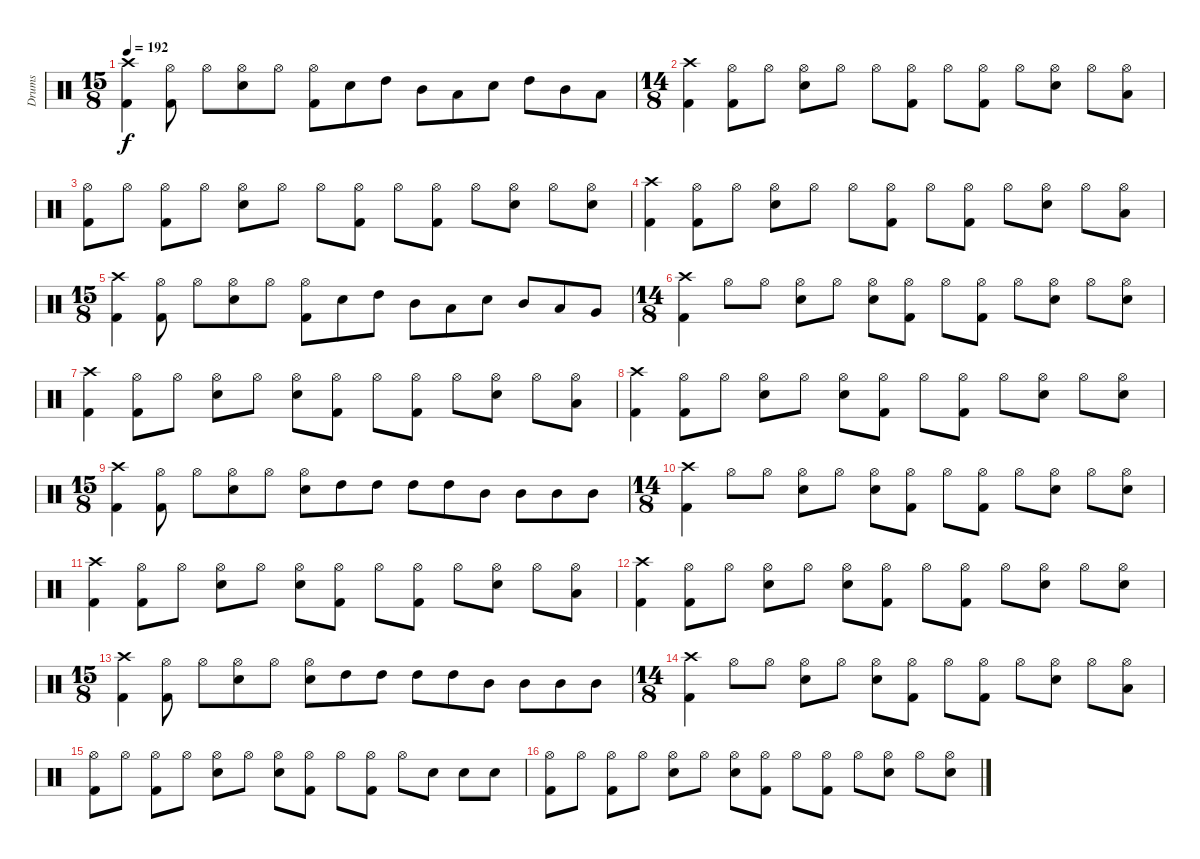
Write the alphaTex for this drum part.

\track ("Drums" "Drums") {instrument percussion}
\staff {score}
\articulation defaults
\ts (15 8)
\tempo 192
\clef neutral
\ks c
("Crash high (hit)" "Kick (hit) 2").4{dy f} ("Hi-Hat (open)" "Kick (hit) 2").8 "Hi-Hat (open)".8 ("Hi-Hat (open)" "Snare (hit) 2").8 "Hi-Hat (open)".8 ("Hi-Hat (open)" "Kick (hit) 2").8 "Snare (hit) 2".8 "High Tom (hit)".8 "Mid Tom (hit)".8 "Low Tom (hit)".8 "Snare (hit) 2".8 "High Tom (hit)".8 "Mid Tom (hit)".8 "Low Tom (hit)".8 |
\ts (14 8)
("Crash high (hit)" "Kick (hit) 2").4 ("Hi-Hat (open)" "Kick (hit) 2").8 "Hi-Hat (open)".8 ("Hi-Hat (open)" "Snare (hit) 2").8 "Hi-Hat (open)".8 "Hi-Hat (open)".8 ("Hi-Hat (open)" "Kick (hit) 2").8 "Hi-Hat (open)".8 ("Hi-Hat (open)" "Kick (hit) 2").8 "Hi-Hat (open)".8 ("Hi-Hat (open)" "Snare (hit) 2").8 "Hi-Hat (open)".8 ("Hi-Hat (open)" "Low Tom (hit)").8 |
("Hi-Hat (open)" "Kick (hit) 2").8 "Hi-Hat (open)".8 ("Hi-Hat (open)" "Kick (hit) 2").8 "Hi-Hat (open)".8 ("Hi-Hat (open)" "Snare (hit) 2").8 "Hi-Hat (open)".8 "Hi-Hat (open)".8 ("Hi-Hat (open)" "Kick (hit) 2").8 "Hi-Hat (open)".8 ("Hi-Hat (open)" "Kick (hit) 2").8 "Hi-Hat (open)".8 ("Hi-Hat (open)" "Snare (hit) 2").8 "Hi-Hat (open)".8 ("Hi-Hat (open)" "Snare (hit) 2").8 |
("Crash high (hit)" "Kick (hit) 2").4 ("Hi-Hat (open)" "Kick (hit) 2").8 "Hi-Hat (open)".8 ("Hi-Hat (open)" "Snare (hit) 2").8 "Hi-Hat (open)".8 "Hi-Hat (open)".8 ("Hi-Hat (open)" "Kick (hit) 2").8 "Hi-Hat (open)".8 ("Hi-Hat (open)" "Kick (hit) 2").8 "Hi-Hat (open)".8 ("Hi-Hat (open)" "Snare (hit) 2").8 "Hi-Hat (open)".8 ("Hi-Hat (open)" "Low Tom (hit)").8 |
\ts (15 8)
("Crash high (hit)" "Kick (hit) 2").4 ("Hi-Hat (open)" "Kick (hit) 2").8 "Hi-Hat (open)".8 ("Hi-Hat (open)" "Snare (hit) 2").8 "Hi-Hat (open)".8 ("Hi-Hat (open)" "Kick (hit) 2").8 "Snare (hit) 2".8 "High Tom (hit)".8 "Mid Tom (hit)".8 "Low Tom (hit)".8 "Snare (hit) 2".8 "Mid Tom (hit)".8 "Low Tom (hit)".8 "Very Low Tom (hit)".8 |
\ts (14 8)
("Crash high (hit)" "Kick (hit) 2").4 "Hi-Hat (open)".8 "Hi-Hat (open)".8 ("Hi-Hat (open)" "Snare (hit) 2").8 "Hi-Hat (open)".8 ("Hi-Hat (open)" "Snare (hit) 2").8 ("Hi-Hat (open)" "Kick (hit) 2").8 "Hi-Hat (open)".8 ("Hi-Hat (open)" "Kick (hit) 2").8 "Hi-Hat (open)".8 ("Hi-Hat (open)" "Snare (hit) 2").8 "Hi-Hat (open)".8 ("Hi-Hat (open)" "Snare (hit) 2").8 |
("Crash high (hit)" "Kick (hit) 2").4 ("Hi-Hat (open)" "Kick (hit) 2").8 "Hi-Hat (open)".8 ("Hi-Hat (open)" "Snare (hit) 2").8 "Hi-Hat (open)".8 ("Hi-Hat (open)" "Snare (hit) 2").8 ("Hi-Hat (open)" "Kick (hit) 2").8 "Hi-Hat (open)".8 ("Hi-Hat (open)" "Kick (hit) 2").8 "Hi-Hat (open)".8 ("Hi-Hat (open)" "Snare (hit) 2").8 "Hi-Hat (open)".8 ("Hi-Hat (open)" "Low Tom (hit)").8 |
("Crash high (hit)" "Kick (hit) 2").4 ("Hi-Hat (open)" "Kick (hit) 2").8 "Hi-Hat (open)".8 ("Hi-Hat (open)" "Snare (hit) 2").8 "Hi-Hat (open)".8 ("Hi-Hat (open)" "Snare (hit) 2").8 ("Hi-Hat (open)" "Kick (hit) 2").8 "Hi-Hat (open)".8 ("Hi-Hat (open)" "Kick (hit) 2").8 "Hi-Hat (open)".8 ("Hi-Hat (open)" "Snare (hit) 2").8 "Hi-Hat (open)".8 ("Hi-Hat (open)" "Snare (hit) 2").8 |
\ts (15 8)
("Crash high (hit)" "Kick (hit) 2").4 ("Hi-Hat (open)" "Kick (hit) 2").8 "Hi-Hat (open)".8 ("Hi-Hat (open)" "Snare (hit) 2").8 "Hi-Hat (open)".8 ("Hi-Hat (open)" "Snare (hit) 2").8 "High Tom (hit)".8 "High Tom (hit)".8 "High Tom (hit)".8 "High Tom (hit)".8 "Mid Tom (hit)".8 "Mid Tom (hit)".8 "Mid Tom (hit)".8 "Mid Tom (hit)".8 |
\ts (14 8)
("Crash high (hit)" "Kick (hit) 2").4 "Hi-Hat (open)".8 "Hi-Hat (open)".8 ("Hi-Hat (open)" "Snare (hit) 2").8 "Hi-Hat (open)".8 ("Hi-Hat (open)" "Snare (hit) 2").8 ("Hi-Hat (open)" "Kick (hit) 2").8 "Hi-Hat (open)".8 ("Hi-Hat (open)" "Kick (hit) 2").8 "Hi-Hat (open)".8 ("Hi-Hat (open)" "Snare (hit) 2").8 "Hi-Hat (open)".8 ("Hi-Hat (open)" "Snare (hit) 2").8 |
("Crash high (hit)" "Kick (hit) 2").4 ("Hi-Hat (open)" "Kick (hit) 2").8 "Hi-Hat (open)".8 ("Hi-Hat (open)" "Snare (hit) 2").8 "Hi-Hat (open)".8 ("Hi-Hat (open)" "Snare (hit) 2").8 ("Hi-Hat (open)" "Kick (hit) 2").8 "Hi-Hat (open)".8 ("Hi-Hat (open)" "Kick (hit) 2").8 "Hi-Hat (open)".8 ("Hi-Hat (open)" "Snare (hit) 2").8 "Hi-Hat (open)".8 ("Hi-Hat (open)" "Low Tom (hit)").8 |
("Crash high (hit)" "Kick (hit) 2").4 ("Hi-Hat (open)" "Kick (hit) 2").8 "Hi-Hat (open)".8 ("Hi-Hat (open)" "Snare (hit) 2").8 "Hi-Hat (open)".8 ("Hi-Hat (open)" "Snare (hit) 2").8 ("Hi-Hat (open)" "Kick (hit) 2").8 "Hi-Hat (open)".8 ("Hi-Hat (open)" "Kick (hit) 2").8 "Hi-Hat (open)".8 ("Hi-Hat (open)" "Snare (hit) 2").8 "Hi-Hat (open)".8 ("Hi-Hat (open)" "Snare (hit) 2").8 |
\ts (15 8)
("Crash high (hit)" "Kick (hit) 2").4 ("Hi-Hat (open)" "Kick (hit) 2").8 "Hi-Hat (open)".8 ("Hi-Hat (open)" "Snare (hit) 2").8 "Hi-Hat (open)".8 ("Hi-Hat (open)" "Snare (hit) 2").8 "High Tom (hit)".8 "High Tom (hit)".8 "High Tom (hit)".8 "High Tom (hit)".8 "Mid Tom (hit)".8 "Mid Tom (hit)".8 "Mid Tom (hit)".8 "Mid Tom (hit)".8 |
\ts (14 8)
("Crash high (hit)" "Kick (hit) 2").4 "Hi-Hat (open)".8 "Hi-Hat (open)".8 ("Hi-Hat (open)" "Snare (hit) 2").8 "Hi-Hat (open)".8 ("Hi-Hat (open)" "Snare (hit) 2").8 ("Hi-Hat (open)" "Kick (hit) 2").8 "Hi-Hat (open)".8 ("Hi-Hat (open)" "Kick (hit) 2").8 "Hi-Hat (open)".8 ("Hi-Hat (open)" "Snare (hit) 2").8 "Hi-Hat (open)".8 ("Hi-Hat (open)" "Low Tom (hit)").8 |
("Hi-Hat (open)" "Kick (hit) 2").8 "Hi-Hat (open)".8 ("Hi-Hat (open)" "Kick (hit) 2").8 "Hi-Hat (open)".8 ("Hi-Hat (open)" "Snare (hit) 2").8 "Hi-Hat (open)".8 ("Hi-Hat (open)" "Snare (hit) 2").8 ("Hi-Hat (open)" "Kick (hit) 2").8 "Hi-Hat (open)".8 ("Hi-Hat (open)" "Kick (hit) 2").8 "Hi-Hat (open)".8 "Snare (hit) 2".8 "Snare (hit) 2".8 "Snare (hit) 2".8 |
("Hi-Hat (open)" "Kick (hit) 2").8 "Hi-Hat (open)".8 ("Hi-Hat (open)" "Kick (hit) 2").8 "Hi-Hat (open)".8 ("Hi-Hat (open)" "Snare (hit) 2").8 "Hi-Hat (open)".8 ("Hi-Hat (open)" "Snare (hit) 2").8 ("Hi-Hat (open)" "Kick (hit) 2").8 "Hi-Hat (open)".8 ("Hi-Hat (open)" "Kick (hit) 2").8 "Hi-Hat (open)".8 ("Hi-Hat (open)" "Snare (hit) 2").8 "Hi-Hat (open)".8 ("Hi-Hat (open)" "Snare (hit) 2").8
